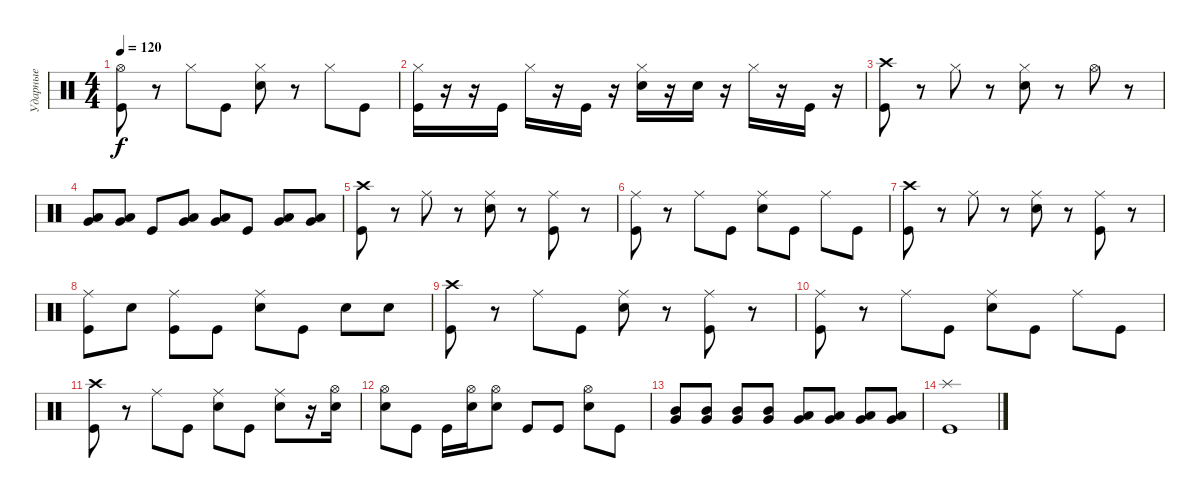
\track ("Ударные" "Ударные") {instrument percussion}
\staff {score}
\articulation defaults
\ts (4 4)
\tempo 120
\clef neutral
\ks c
("Hi-Hat (open)" "Kick (hit)").8{dy f} r.8 "Hi-Hat (closed)".8 "Kick (hit)".8 ("Hi-Hat (closed)" "Snare (hit) 2").8 r.8 "Hi-Hat (closed)".8 "Kick (hit)".8 |
("Hi-Hat (closed)" "Kick (hit)").16 r.16 r.16 "Kick (hit)".16 "Hi-Hat (closed)".16 r.16 "Kick (hit)".16 r.16 ("Hi-Hat (closed)" "Snare (hit) 2").16 r.16 "Snare (hit) 2".16 r.16 "Hi-Hat (closed)".16 r.16 "Kick (hit)".16 r.16 |
("Crash high (hit)" "Kick (hit)").8 r.8 "Hi-Hat (closed)".8 r.8 ("Hi-Hat (closed)" "Snare (hit) 2").8 r.8 "Hi-Hat (open)".8 r.8 |
("Low Tom (hit)" "Very Low Tom (hit)").8 ("Low Tom (hit)" "Very Low Tom (hit)").8 "Kick (hit)".8 ("Low Tom (hit)" "Very Low Tom (hit)").8 ("Low Tom (hit)" "Very Low Tom (hit)").8 "Kick (hit)".8 ("Low Tom (hit)" "Very Low Tom (hit)").8 ("Low Tom (hit)" "Very Low Tom (hit)").8 |
("Crash high (hit)" "Kick (hit)").8 r.8 "Ride (middle)".8 r.8 ("Ride (middle)" "Snare (hit) 2").8 r.8 ("Ride (middle)" "Kick (hit)").8 r.8 |
("Ride (middle)" "Kick (hit)").8 r.8 "Ride (middle)".8 "Kick (hit)".8 ("Ride (middle)" "Snare (hit) 2").8 "Kick (hit)".8 "Ride (middle)".8 "Kick (hit)".8 |
("Crash high (hit)" "Kick (hit)").8 r.8 "Ride (middle)".8 r.8 ("Ride (middle)" "Snare (hit) 2").8 r.8 ("Ride (middle)" "Kick (hit)").8 r.8 |
("Ride (middle)" "Kick (hit)").8 "Snare (hit) 2".8 ("Ride (middle)" "Kick (hit)").8 "Kick (hit)".8 ("Ride (middle)" "Snare (hit) 2").8 "Kick (hit)".8 "Snare (hit) 2".8 "Snare (hit) 2".8 |
("Crash high (hit)" "Kick (hit)").8 r.8 "Ride (middle)".8 "Kick (hit)".8 ("Ride (middle)" "Snare (hit) 2").8 r.8 ("Ride (middle)" "Kick (hit)").8 r.8 |
("Ride (middle)" "Kick (hit)").8 r.8 "Ride (middle)".8 "Kick (hit)".8 ("Ride (middle)" "Snare (hit) 2").8 "Kick (hit)".8 "Ride (middle)".8 "Kick (hit)".8 |
("Crash high (hit)" "Kick (hit)").8 r.8 "Ride (middle)".8 "Kick (hit)".8 ("Ride (middle)" "Snare (hit) 2").8 "Kick (hit)".8 ("Ride (middle)" "Snare (hit) 2").8 r.16 ("Hi-Hat (open)" "Snare (hit) 2").16 |
("Hi-Hat (open)" "Snare (hit) 2").8 "Kick (hit)".8 "Kick (hit)".16 ("Hi-Hat (open)" "Snare (hit) 2").16 ("Hi-Hat (open)" "Snare (hit) 2").8 "Kick (hit)".8 "Kick (hit)".8 ("Hi-Hat (open)" "Snare (hit) 2").8 "Kick (hit)".8 |
("Mid Tom (hit)" "Very Low Tom (hit)").8 ("Mid Tom (hit)" "Very Low Tom (hit)").8 ("Mid Tom (hit)" "Very Low Tom (hit)").8 ("Mid Tom (hit)" "Very Low Tom (hit)").8 ("Very Low Tom (hit)" "Low Floor Tom (hit)").8 ("Very Low Tom (hit)" "Low Floor Tom (hit)").8 ("Very Low Tom (hit)" "Low Floor Tom (hit)").8 ("Very Low Tom (hit)" "Low Floor Tom (hit)").8 |
("Splash (hit)" "Kick (hit)").1
